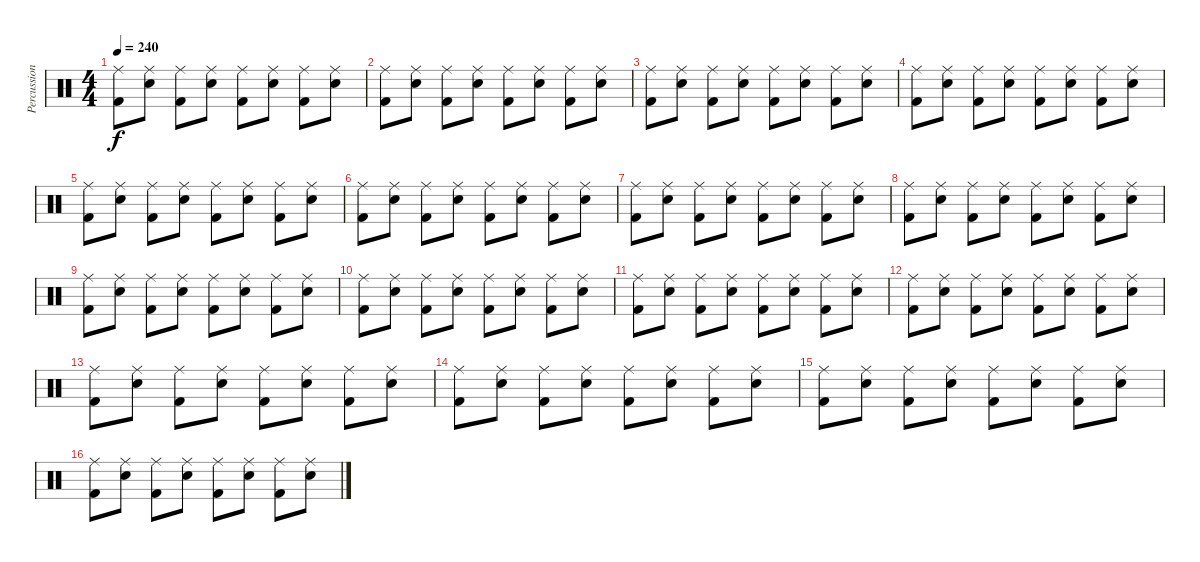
\track ("Percussion" "Percussion") {instrument percussion}
\staff {score}
\articulation defaults
\ts (4 4)
\tempo 240
\clef neutral
\ks c
("Kick (hit) 2" "Ride (middle)").8{dy f} ("Snare (hit) 2" "Ride (middle)").8 ("Kick (hit) 2" "Ride (middle)").8 ("Snare (hit) 2" "Ride (middle)").8 ("Kick (hit) 2" "Ride (middle)").8 ("Snare (hit) 2" "Ride (middle)").8 ("Kick (hit) 2" "Ride (middle)").8 ("Snare (hit) 2" "Ride (middle)").8 |
("Kick (hit) 2" "Ride (middle)").8 ("Snare (hit) 2" "Ride (middle)").8 ("Kick (hit) 2" "Ride (middle)").8 ("Snare (hit) 2" "Ride (middle)").8 ("Kick (hit) 2" "Ride (middle)").8 ("Snare (hit) 2" "Ride (middle)").8 ("Kick (hit) 2" "Ride (middle)").8 ("Snare (hit) 2" "Ride (middle)").8 |
("Kick (hit) 2" "Ride (middle)").8 ("Snare (hit) 2" "Ride (middle)").8 ("Kick (hit) 2" "Ride (middle)").8 ("Snare (hit) 2" "Ride (middle)").8 ("Kick (hit) 2" "Ride (middle)").8 ("Snare (hit) 2" "Ride (middle)").8 ("Kick (hit) 2" "Ride (middle)").8 ("Snare (hit) 2" "Ride (middle)").8 |
("Kick (hit) 2" "Ride (middle)").8 ("Snare (hit) 2" "Ride (middle)").8 ("Kick (hit) 2" "Ride (middle)").8 ("Snare (hit) 2" "Ride (middle)").8 ("Kick (hit) 2" "Ride (middle)").8 ("Snare (hit) 2" "Ride (middle)").8 ("Kick (hit) 2" "Ride (middle)").8 ("Snare (hit) 2" "Ride (middle)").8 |
("Kick (hit) 2" "Ride (middle)").8 ("Snare (hit) 2" "Ride (middle)").8 ("Kick (hit) 2" "Ride (middle)").8 ("Snare (hit) 2" "Ride (middle)").8 ("Kick (hit) 2" "Ride (middle)").8 ("Snare (hit) 2" "Ride (middle)").8 ("Kick (hit) 2" "Ride (middle)").8 ("Snare (hit) 2" "Ride (middle)").8 |
("Kick (hit) 2" "Ride (middle)").8 ("Snare (hit) 2" "Ride (middle)").8 ("Kick (hit) 2" "Ride (middle)").8 ("Snare (hit) 2" "Ride (middle)").8 ("Kick (hit) 2" "Ride (middle)").8 ("Snare (hit) 2" "Ride (middle)").8 ("Kick (hit) 2" "Ride (middle)").8 ("Snare (hit) 2" "Ride (middle)").8 |
("Kick (hit) 2" "Ride (middle)").8 ("Snare (hit) 2" "Ride (middle)").8 ("Kick (hit) 2" "Ride (middle)").8 ("Snare (hit) 2" "Ride (middle)").8 ("Kick (hit) 2" "Ride (middle)").8 ("Snare (hit) 2" "Ride (middle)").8 ("Kick (hit) 2" "Ride (middle)").8 ("Snare (hit) 2" "Ride (middle)").8 |
("Kick (hit) 2" "Ride (middle)").8 ("Snare (hit) 2" "Ride (middle)").8 ("Kick (hit) 2" "Ride (middle)").8 ("Snare (hit) 2" "Ride (middle)").8 ("Kick (hit) 2" "Ride (middle)").8 ("Snare (hit) 2" "Ride (middle)").8 ("Kick (hit) 2" "Ride (middle)").8 ("Snare (hit) 2" "Ride (middle)").8 |
("Kick (hit) 2" "Ride (middle)").8 ("Snare (hit) 2" "Ride (middle)").8 ("Kick (hit) 2" "Ride (middle)").8 ("Snare (hit) 2" "Ride (middle)").8 ("Kick (hit) 2" "Ride (middle)").8 ("Snare (hit) 2" "Ride (middle)").8 ("Kick (hit) 2" "Ride (middle)").8 ("Snare (hit) 2" "Ride (middle)").8 |
("Kick (hit) 2" "Ride (middle)").8 ("Snare (hit) 2" "Ride (middle)").8 ("Kick (hit) 2" "Ride (middle)").8 ("Snare (hit) 2" "Ride (middle)").8 ("Kick (hit) 2" "Ride (middle)").8 ("Snare (hit) 2" "Ride (middle)").8 ("Kick (hit) 2" "Ride (middle)").8 ("Snare (hit) 2" "Ride (middle)").8 |
("Kick (hit) 2" "Ride (middle)").8 ("Snare (hit) 2" "Ride (middle)").8 ("Kick (hit) 2" "Ride (middle)").8 ("Snare (hit) 2" "Ride (middle)").8 ("Kick (hit) 2" "Ride (middle)").8 ("Snare (hit) 2" "Ride (middle)").8 ("Kick (hit) 2" "Ride (middle)").8 ("Snare (hit) 2" "Ride (middle)").8 |
("Kick (hit) 2" "Ride (middle)").8 ("Snare (hit) 2" "Ride (middle)").8 ("Kick (hit) 2" "Ride (middle)").8 ("Snare (hit) 2" "Ride (middle)").8 ("Kick (hit) 2" "Ride (middle)").8 ("Snare (hit) 2" "Ride (middle)").8 ("Kick (hit) 2" "Ride (middle)").8 ("Snare (hit) 2" "Ride (middle)").8 |
("Kick (hit) 2" "Ride (middle)").8 ("Snare (hit) 2" "Ride (middle)").8 ("Kick (hit) 2" "Ride (middle)").8 ("Snare (hit) 2" "Ride (middle)").8 ("Kick (hit) 2" "Ride (middle)").8 ("Snare (hit) 2" "Ride (middle)").8 ("Kick (hit) 2" "Ride (middle)").8 ("Snare (hit) 2" "Ride (middle)").8 |
("Kick (hit) 2" "Ride (middle)").8 ("Snare (hit) 2" "Ride (middle)").8 ("Kick (hit) 2" "Ride (middle)").8 ("Snare (hit) 2" "Ride (middle)").8 ("Kick (hit) 2" "Ride (middle)").8 ("Snare (hit) 2" "Ride (middle)").8 ("Kick (hit) 2" "Ride (middle)").8 ("Snare (hit) 2" "Ride (middle)").8 |
("Kick (hit) 2" "Ride (middle)").8 ("Snare (hit) 2" "Ride (middle)").8 ("Kick (hit) 2" "Ride (middle)").8 ("Snare (hit) 2" "Ride (middle)").8 ("Kick (hit) 2" "Ride (middle)").8 ("Snare (hit) 2" "Ride (middle)").8 ("Kick (hit) 2" "Ride (middle)").8 ("Snare (hit) 2" "Ride (middle)").8 |
("Kick (hit) 2" "Ride (middle)").8 ("Snare (hit) 2" "Ride (middle)").8 ("Kick (hit) 2" "Ride (middle)").8 ("Snare (hit) 2" "Ride (middle)").8 ("Kick (hit) 2" "Ride (middle)").8 ("Snare (hit) 2" "Ride (middle)").8 ("Kick (hit) 2" "Ride (middle)").8 ("Snare (hit) 2" "Ride (middle)").8
